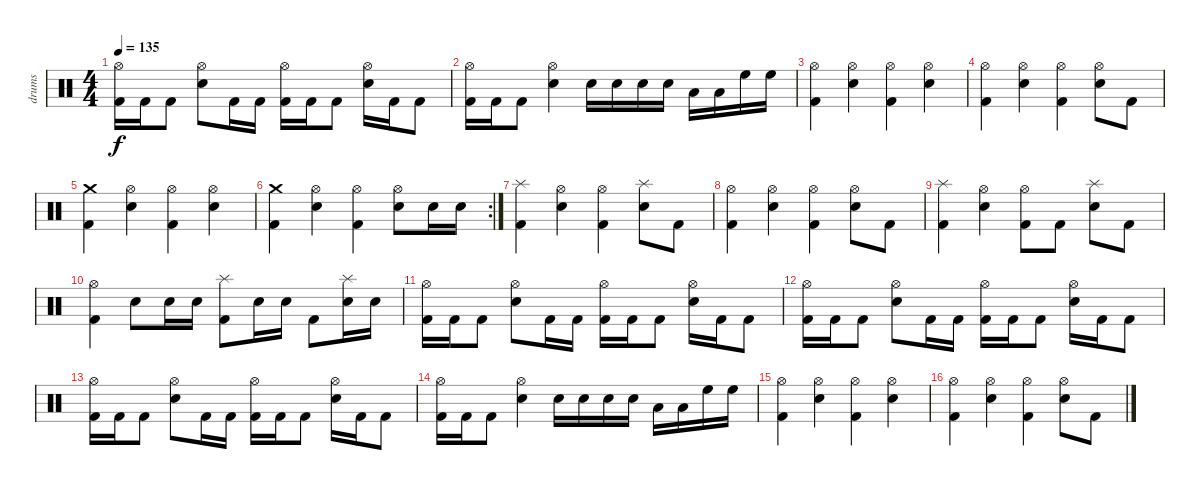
\track ("drums" "drums") {instrument percussion}
\staff {score}
\articulation defaults
\ts (4 4)
\tempo 135
\clef neutral
\ks c
("Hi-Hat (open)" "Kick (hit) 2").16{dy f} "Kick (hit) 2".16 "Kick (hit) 2".8 ("Hi-Hat (open)" "Electric Snare (hit)").8 "Kick (hit) 2".16 "Kick (hit) 2".16 ("Hi-Hat (open)" "Kick (hit) 2").16 "Kick (hit) 2".16 "Kick (hit) 2".8 ("Hi-Hat (open)" "Electric Snare (hit)").16 "Kick (hit) 2".16 "Kick (hit) 2".8 |
("Hi-Hat (open)" "Kick (hit) 2").16 "Kick (hit) 2".16 "Kick (hit) 2".8 ("Hi-Hat (open)" "Electric Snare (hit)").4 "Electric Snare (hit)".16 "Electric Snare (hit)".16 "Electric Snare (hit)".16 "Electric Snare (hit)".16 "Low Tom (hit)".16 "Low Tom (hit)".16 "High Floor Tom (hit)".16 "High Floor Tom (hit)".16 |
("Hi-Hat (open)" "Kick (hit) 2").4 ("Hi-Hat (open)" "Electric Snare (hit)").4 ("Hi-Hat (open)" "Kick (hit) 2").4 ("Hi-Hat (open)" "Electric Snare (hit)").4 |
("Hi-Hat (open)" "Kick (hit) 2").4 ("Hi-Hat (open)" "Electric Snare (hit)").4 ("Hi-Hat (open)" "Kick (hit) 2").4 ("Hi-Hat (open)" "Electric Snare (hit)").8 "Kick (hit) 2".8 |
("Crash medium (hit)" "Kick (hit) 2").4 ("Hi-Hat (open)" "Electric Snare (hit)").4 ("Hi-Hat (open)" "Kick (hit) 2").4 ("Hi-Hat (open)" "Electric Snare (hit)").4 |
\rc 2
("Crash medium (hit)" "Kick (hit) 2").4 ("Hi-Hat (open)" "Electric Snare (hit)").4 ("Hi-Hat (open)" "Kick (hit) 2").4 ("Hi-Hat (open)" "Electric Snare (hit)").8 "Electric Snare (hit)".16 "Electric Snare (hit)".16 |
("Splash (hit)" "Kick (hit) 2").4 ("Hi-Hat (open)" "Electric Snare (hit)").4 ("Hi-Hat (open)" "Kick (hit) 2").4 ("Splash (hit)" "Electric Snare (hit)").8 "Kick (hit) 2".8 |
("Hi-Hat (open)" "Kick (hit) 2").4 ("Hi-Hat (open)" "Electric Snare (hit)").4 ("Hi-Hat (open)" "Kick (hit) 2").4 ("Hi-Hat (open)" "Electric Snare (hit)").8 "Kick (hit) 2".8 |
("Splash (hit)" "Kick (hit) 2").4 ("Hi-Hat (open)" "Electric Snare (hit)").4 ("Hi-Hat (open)" "Kick (hit) 2").8 "Kick (hit) 2".8 ("Splash (hit)" "Electric Snare (hit)").8 "Kick (hit) 2".8 |
("Hi-Hat (open)" "Kick (hit) 2").4 "Electric Snare (hit)".8 "Electric Snare (hit)".16 "Electric Snare (hit)".16 ("Splash (hit)" "Kick (hit) 2").8 "Electric Snare (hit)".16 "Electric Snare (hit)".16 "Kick (hit) 2".8 ("Splash (hit)" "Electric Snare (hit)").16 "Electric Snare (hit)".16 |
("Hi-Hat (open)" "Kick (hit) 2").16 "Kick (hit) 2".16 "Kick (hit) 2".8 ("Hi-Hat (open)" "Electric Snare (hit)").8 "Kick (hit) 2".16 "Kick (hit) 2".16 ("Hi-Hat (open)" "Kick (hit) 2").16 "Kick (hit) 2".16 "Kick (hit) 2".8 ("Hi-Hat (open)" "Electric Snare (hit)").16 "Kick (hit) 2".16 "Kick (hit) 2".8 |
("Hi-Hat (open)" "Kick (hit) 2").16 "Kick (hit) 2".16 "Kick (hit) 2".8 ("Hi-Hat (open)" "Electric Snare (hit)").8 "Kick (hit) 2".16 "Kick (hit) 2".16 ("Hi-Hat (open)" "Kick (hit) 2").16 "Kick (hit) 2".16 "Kick (hit) 2".8 ("Hi-Hat (open)" "Electric Snare (hit)").16 "Kick (hit) 2".16 "Kick (hit) 2".8 |
("Hi-Hat (open)" "Kick (hit) 2").16 "Kick (hit) 2".16 "Kick (hit) 2".8 ("Hi-Hat (open)" "Electric Snare (hit)").8 "Kick (hit) 2".16 "Kick (hit) 2".16 ("Hi-Hat (open)" "Kick (hit) 2").16 "Kick (hit) 2".16 "Kick (hit) 2".8 ("Hi-Hat (open)" "Electric Snare (hit)").16 "Kick (hit) 2".16 "Kick (hit) 2".8 |
("Hi-Hat (open)" "Kick (hit) 2").16 "Kick (hit) 2".16 "Kick (hit) 2".8 ("Hi-Hat (open)" "Electric Snare (hit)").4 "Electric Snare (hit)".16 "Electric Snare (hit)".16 "Electric Snare (hit)".16 "Electric Snare (hit)".16 "Low Tom (hit)".16 "Low Tom (hit)".16 "High Floor Tom (hit)".16 "High Floor Tom (hit)".16 |
("Hi-Hat (open)" "Kick (hit) 2").4 ("Hi-Hat (open)" "Electric Snare (hit)").4 ("Hi-Hat (open)" "Kick (hit) 2").4 ("Hi-Hat (open)" "Electric Snare (hit)").4 |
("Hi-Hat (open)" "Kick (hit) 2").4 ("Hi-Hat (open)" "Electric Snare (hit)").4 ("Hi-Hat (open)" "Kick (hit) 2").4 ("Hi-Hat (open)" "Electric Snare (hit)").8 "Kick (hit) 2".8
